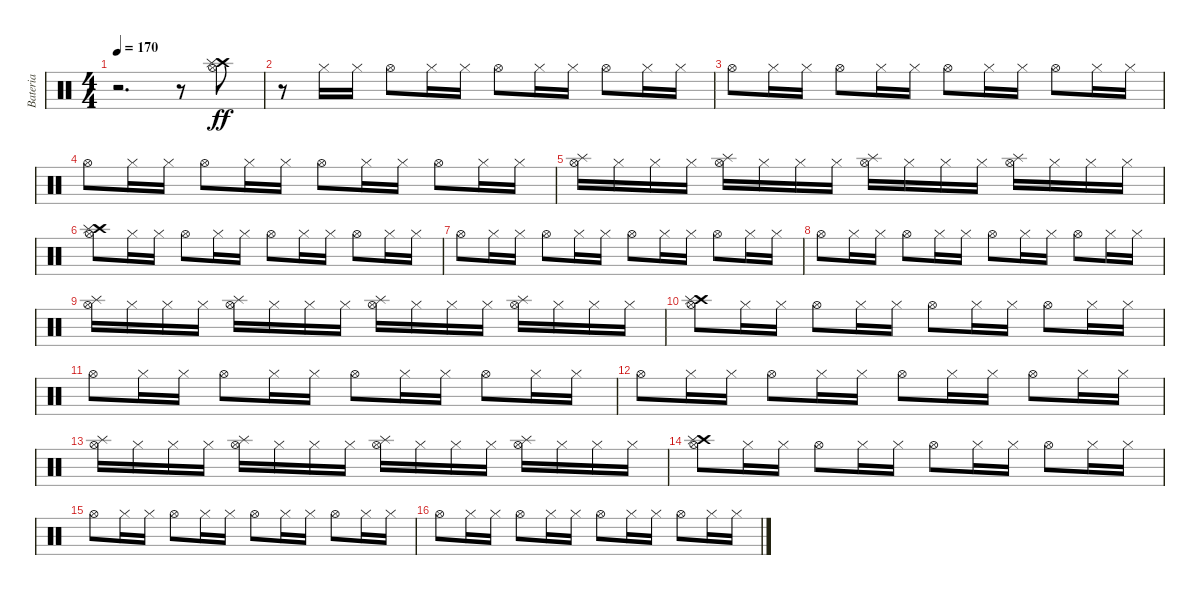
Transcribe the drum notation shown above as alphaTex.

\track ("Bateria" "Bateria") {instrument percussion}
\staff {score}
\articulation defaults
\ts (4 4)
\tempo 170
\clef neutral
\ks c
r.2{d dy ff} r.8 ("Hi-Hat (open)" "Crash high (hit)" "Splash (hit)").8 |
r.8 "Hi-Hat (closed)".16 "Hi-Hat (closed)".16 "Hi-Hat (open)".8 "Hi-Hat (closed)".16 "Hi-Hat (closed)".16 "Hi-Hat (open)".8 "Hi-Hat (closed)".16 "Hi-Hat (closed)".16 "Hi-Hat (open)".8 "Hi-Hat (closed)".16 "Hi-Hat (closed)".16 |
"Hi-Hat (open)".8 "Hi-Hat (closed)".16 "Hi-Hat (closed)".16 "Hi-Hat (open)".8 "Hi-Hat (closed)".16 "Hi-Hat (closed)".16 "Hi-Hat (open)".8 "Hi-Hat (closed)".16 "Hi-Hat (closed)".16 "Hi-Hat (open)".8 "Hi-Hat (closed)".16 "Hi-Hat (closed)".16 |
"Hi-Hat (open)".8 "Hi-Hat (closed)".16 "Hi-Hat (closed)".16 "Hi-Hat (open)".8 "Hi-Hat (closed)".16 "Hi-Hat (closed)".16 "Hi-Hat (open)".8 "Hi-Hat (closed)".16 "Hi-Hat (closed)".16 "Hi-Hat (open)".8 "Hi-Hat (closed)".16 "Hi-Hat (closed)".16 |
("Hi-Hat (open)" "Splash (hit)").16 "Hi-Hat (closed)".16 "Hi-Hat (closed)".16 "Hi-Hat (closed)".16 ("Hi-Hat (open)" "Splash (hit)").16 "Hi-Hat (closed)".16 "Hi-Hat (closed)".16 "Hi-Hat (closed)".16 ("Hi-Hat (open)" "Splash (hit)").16 "Hi-Hat (closed)".16 "Hi-Hat (closed)".16 "Hi-Hat (closed)".16 ("Hi-Hat (open)" "Splash (hit)").16 "Hi-Hat (closed)".16 "Hi-Hat (closed)".16 "Hi-Hat (closed)".16 |
("Hi-Hat (open)" "Crash high (hit)" "Splash (hit)").8 "Hi-Hat (closed)".16 "Hi-Hat (closed)".16 "Hi-Hat (open)".8 "Hi-Hat (closed)".16 "Hi-Hat (closed)".16 "Hi-Hat (open)".8 "Hi-Hat (closed)".16 "Hi-Hat (closed)".16 "Hi-Hat (open)".8 "Hi-Hat (closed)".16 "Hi-Hat (closed)".16 |
"Hi-Hat (open)".8 "Hi-Hat (closed)".16 "Hi-Hat (closed)".16 "Hi-Hat (open)".8 "Hi-Hat (closed)".16 "Hi-Hat (closed)".16 "Hi-Hat (open)".8 "Hi-Hat (closed)".16 "Hi-Hat (closed)".16 "Hi-Hat (open)".8 "Hi-Hat (closed)".16 "Hi-Hat (closed)".16 |
"Hi-Hat (open)".8 "Hi-Hat (closed)".16 "Hi-Hat (closed)".16 "Hi-Hat (open)".8 "Hi-Hat (closed)".16 "Hi-Hat (closed)".16 "Hi-Hat (open)".8 "Hi-Hat (closed)".16 "Hi-Hat (closed)".16 "Hi-Hat (open)".8 "Hi-Hat (closed)".16 "Hi-Hat (closed)".16 |
("Hi-Hat (open)" "Splash (hit)").16 "Hi-Hat (closed)".16 "Hi-Hat (closed)".16 "Hi-Hat (closed)".16 ("Hi-Hat (open)" "Splash (hit)").16 "Hi-Hat (closed)".16 "Hi-Hat (closed)".16 "Hi-Hat (closed)".16 ("Hi-Hat (open)" "Splash (hit)").16 "Hi-Hat (closed)".16 "Hi-Hat (closed)".16 "Hi-Hat (closed)".16 ("Hi-Hat (open)" "Splash (hit)").16 "Hi-Hat (closed)".16 "Hi-Hat (closed)".16 "Hi-Hat (closed)".16 |
("Hi-Hat (open)" "Crash high (hit)" "Splash (hit)").8 "Hi-Hat (closed)".16 "Hi-Hat (closed)".16 "Hi-Hat (open)".8 "Hi-Hat (closed)".16 "Hi-Hat (closed)".16 "Hi-Hat (open)".8 "Hi-Hat (closed)".16 "Hi-Hat (closed)".16 "Hi-Hat (open)".8 "Hi-Hat (closed)".16 "Hi-Hat (closed)".16 |
"Hi-Hat (open)".8 "Hi-Hat (closed)".16 "Hi-Hat (closed)".16 "Hi-Hat (open)".8 "Hi-Hat (closed)".16 "Hi-Hat (closed)".16 "Hi-Hat (open)".8 "Hi-Hat (closed)".16 "Hi-Hat (closed)".16 "Hi-Hat (open)".8 "Hi-Hat (closed)".16 "Hi-Hat (closed)".16 |
"Hi-Hat (open)".8 "Hi-Hat (closed)".16 "Hi-Hat (closed)".16 "Hi-Hat (open)".8 "Hi-Hat (closed)".16 "Hi-Hat (closed)".16 "Hi-Hat (open)".8 "Hi-Hat (closed)".16 "Hi-Hat (closed)".16 "Hi-Hat (open)".8 "Hi-Hat (closed)".16 "Hi-Hat (closed)".16 |
("Hi-Hat (open)" "Splash (hit)").16 "Hi-Hat (closed)".16 "Hi-Hat (closed)".16 "Hi-Hat (closed)".16 ("Hi-Hat (open)" "Splash (hit)").16 "Hi-Hat (closed)".16 "Hi-Hat (closed)".16 "Hi-Hat (closed)".16 ("Hi-Hat (open)" "Splash (hit)").16 "Hi-Hat (closed)".16 "Hi-Hat (closed)".16 "Hi-Hat (closed)".16 ("Hi-Hat (open)" "Splash (hit)").16 "Hi-Hat (closed)".16 "Hi-Hat (closed)".16 "Hi-Hat (closed)".16 |
("Hi-Hat (open)" "Crash high (hit)" "Splash (hit)").8 "Hi-Hat (closed)".16 "Hi-Hat (closed)".16 "Hi-Hat (open)".8 "Hi-Hat (closed)".16 "Hi-Hat (closed)".16 "Hi-Hat (open)".8 "Hi-Hat (closed)".16 "Hi-Hat (closed)".16 "Hi-Hat (open)".8 "Hi-Hat (closed)".16 "Hi-Hat (closed)".16 |
"Hi-Hat (open)".8 "Hi-Hat (closed)".16 "Hi-Hat (closed)".16 "Hi-Hat (open)".8 "Hi-Hat (closed)".16 "Hi-Hat (closed)".16 "Hi-Hat (open)".8 "Hi-Hat (closed)".16 "Hi-Hat (closed)".16 "Hi-Hat (open)".8 "Hi-Hat (closed)".16 "Hi-Hat (closed)".16 |
"Hi-Hat (open)".8 "Hi-Hat (closed)".16 "Hi-Hat (closed)".16 "Hi-Hat (open)".8 "Hi-Hat (closed)".16 "Hi-Hat (closed)".16 "Hi-Hat (open)".8 "Hi-Hat (closed)".16 "Hi-Hat (closed)".16 "Hi-Hat (open)".8 "Hi-Hat (closed)".16 "Hi-Hat (closed)".16
